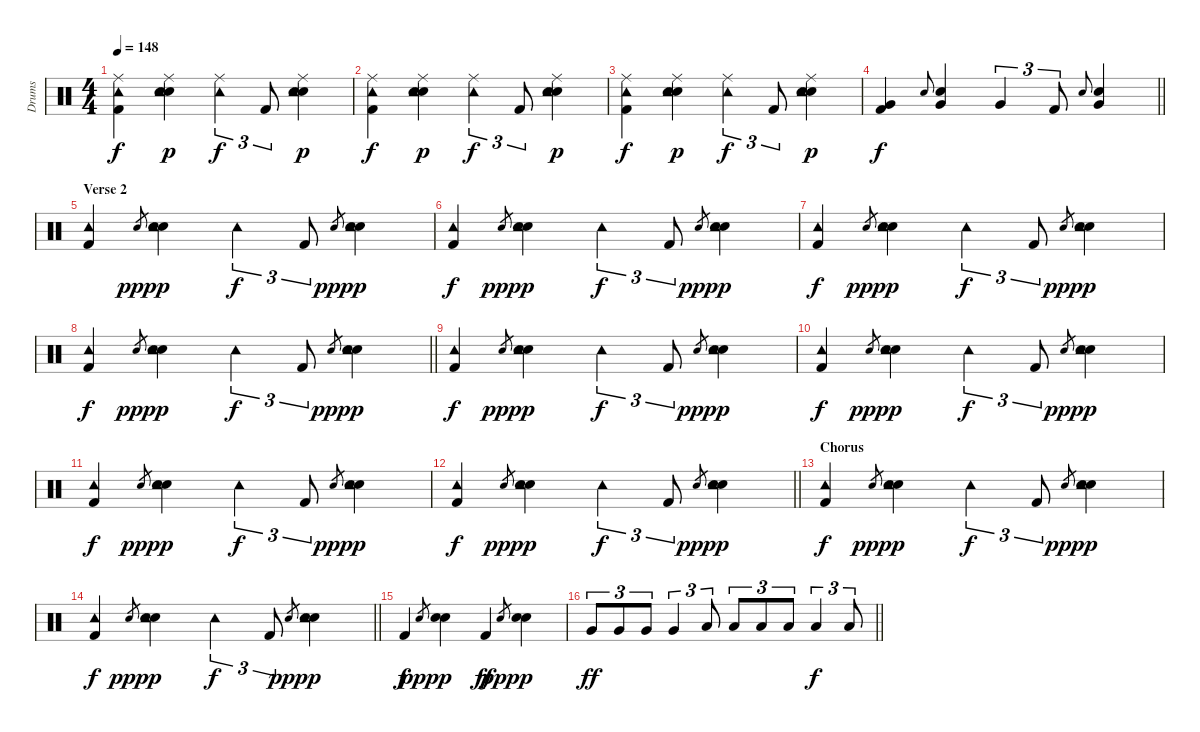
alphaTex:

\track ("Drums" "Drums") {instrument percussion}
\staff {score}
\articulation defaults
\ts (4 4)
\tempo 148
\clef neutral
\ks c
("Ride (middle)" "Tambourine (hit)" "Kick (hit) 2").4{dy f} ("Ride (middle)" "Hand Clap (hit)" "Tambourine (hit)" "Electric Snare (hit)").4{dy p} ("Ride (middle)" "Tambourine (hit)").4{tu (3 2) dy f} "Kick (hit) 2".8{tu (3 2)} ("Ride (middle)" "Hand Clap (hit)" "Tambourine (hit)" "Electric Snare (hit)").4{dy p} |
("Ride (middle)" "Tambourine (hit)" "Kick (hit) 2").4{dy f} ("Ride (middle)" "Hand Clap (hit)" "Tambourine (hit)" "Electric Snare (hit)").4{dy p} ("Ride (middle)" "Tambourine (hit)").4{tu (3 2) dy f} "Kick (hit) 2".8{tu (3 2)} ("Ride (middle)" "Hand Clap (hit)" "Tambourine (hit)" "Electric Snare (hit)").4{dy p} |
("Ride (middle)" "Tambourine (hit)" "Kick (hit) 2").4{dy f} ("Ride (middle)" "Hand Clap (hit)" "Tambourine (hit)" "Electric Snare (hit)").4{dy p} ("Ride (middle)" "Tambourine (hit)").4{tu (3 2) dy f} "Kick (hit) 2".8{tu (3 2)} ("Ride (middle)" "Hand Clap (hit)" "Tambourine (hit)" "Electric Snare (hit)").4{dy p} |
\barLineRight lightlight
("Very Low Tom (hit)" "Kick (hit) 2").4{dy f} "Electric Snare (hit)".8{gr onbeat} ("Very Low Tom (hit)" "Electric Snare (hit)").4 "Very Low Tom (hit)".4{tu (3 2)} "Kick (hit) 2".8{tu (3 2)} "Electric Snare (hit)".8{gr onbeat} ("Very Low Tom (hit)" "Electric Snare (hit)").4 |
\section ("" "Verse 2")
("Tambourine (hit)" "Kick (hit) 2").4 "Electric Snare (hit)".8{gr dy ppp} ("Hand Clap (hit)" "Tambourine (hit)" "Electric Snare (hit)").4{dy p} "Tambourine (hit)".4{tu (3 2) dy f} "Kick (hit) 2".8{tu (3 2)} "Electric Snare (hit)".8{gr dy ppp} ("Hand Clap (hit)" "Tambourine (hit)" "Electric Snare (hit)").4{dy p} |
("Tambourine (hit)" "Kick (hit) 2").4{dy f} "Electric Snare (hit)".8{gr dy ppp} ("Hand Clap (hit)" "Tambourine (hit)" "Electric Snare (hit)").4{dy p} "Tambourine (hit)".4{tu (3 2) dy f} "Kick (hit) 2".8{tu (3 2)} "Electric Snare (hit)".8{gr dy ppp} ("Hand Clap (hit)" "Tambourine (hit)" "Electric Snare (hit)").4{dy p} |
("Tambourine (hit)" "Kick (hit) 2").4{dy f} "Electric Snare (hit)".8{gr dy ppp} ("Hand Clap (hit)" "Tambourine (hit)" "Electric Snare (hit)").4{dy p} "Tambourine (hit)".4{tu (3 2) dy f} "Kick (hit) 2".8{tu (3 2)} "Electric Snare (hit)".8{gr dy ppp} ("Hand Clap (hit)" "Tambourine (hit)" "Electric Snare (hit)").4{dy p} |
\barLineRight lightlight
("Tambourine (hit)" "Kick (hit) 2").4{dy f} "Electric Snare (hit)".8{gr dy ppp} ("Hand Clap (hit)" "Tambourine (hit)" "Electric Snare (hit)").4{dy p} "Tambourine (hit)".4{tu (3 2) dy f} "Kick (hit) 2".8{tu (3 2)} "Electric Snare (hit)".8{gr dy ppp} ("Hand Clap (hit)" "Tambourine (hit)" "Electric Snare (hit)").4{dy p} |
("Tambourine (hit)" "Kick (hit) 2").4{dy f} "Electric Snare (hit)".8{gr dy ppp} ("Hand Clap (hit)" "Tambourine (hit)" "Electric Snare (hit)").4{dy p} "Tambourine (hit)".4{tu (3 2) dy f} "Kick (hit) 2".8{tu (3 2)} "Electric Snare (hit)".8{gr dy ppp} ("Hand Clap (hit)" "Tambourine (hit)" "Electric Snare (hit)").4{dy p} |
("Tambourine (hit)" "Kick (hit) 2").4{dy f} "Electric Snare (hit)".8{gr dy ppp} ("Hand Clap (hit)" "Tambourine (hit)" "Electric Snare (hit)").4{dy p} "Tambourine (hit)".4{tu (3 2) dy f} "Kick (hit) 2".8{tu (3 2)} "Electric Snare (hit)".8{gr dy ppp} ("Hand Clap (hit)" "Tambourine (hit)" "Electric Snare (hit)").4{dy p} |
("Tambourine (hit)" "Kick (hit) 2").4{dy f} "Electric Snare (hit)".8{gr dy ppp} ("Hand Clap (hit)" "Tambourine (hit)" "Electric Snare (hit)").4{dy p} "Tambourine (hit)".4{tu (3 2) dy f} "Kick (hit) 2".8{tu (3 2)} "Electric Snare (hit)".8{gr dy ppp} ("Hand Clap (hit)" "Tambourine (hit)" "Electric Snare (hit)").4{dy p} |
\barLineRight lightlight
("Tambourine (hit)" "Kick (hit) 2").4{dy f} "Electric Snare (hit)".8{gr dy ppp} ("Hand Clap (hit)" "Tambourine (hit)" "Electric Snare (hit)").4{dy p} "Tambourine (hit)".4{tu (3 2) dy f} "Kick (hit) 2".8{tu (3 2)} "Electric Snare (hit)".8{gr dy ppp} ("Hand Clap (hit)" "Tambourine (hit)" "Electric Snare (hit)").4{dy p} |
\section ("" "Chorus")
("Tambourine (hit)" "Kick (hit) 2").4{dy f} "Electric Snare (hit)".8{gr dy ppp} ("Hand Clap (hit)" "Tambourine (hit)" "Electric Snare (hit)").4{dy p} "Tambourine (hit)".4{tu (3 2) dy f} "Kick (hit) 2".8{tu (3 2)} "Electric Snare (hit)".8{gr dy ppp} ("Hand Clap (hit)" "Tambourine (hit)" "Electric Snare (hit)").4{dy p} |
\barLineRight lightlight
("Tambourine (hit)" "Kick (hit) 2").4{dy f} "Electric Snare (hit)".8{gr dy ppp} ("Hand Clap (hit)" "Tambourine (hit)" "Electric Snare (hit)").4{dy p} "Tambourine (hit)".4{tu (3 2) dy f} "Kick (hit) 2".8{tu (3 2)} "Electric Snare (hit)".8{gr dy ppp} ("Hand Clap (hit)" "Tambourine (hit)" "Electric Snare (hit)").4{dy p} |
"Kick (hit) 2".4{dy f} "Electric Snare (hit)".8{gr dy ppp} ("Hand Clap (hit)" "Electric Snare (hit)").4{dy p} "Kick (hit) 2".4{dy ff} "Electric Snare (hit)".8{gr dy ppp} ("Hand Clap (hit)" "Electric Snare (hit)").4{dy p} |
\barLineRight lightlight "Very Low Tom (hit)".8{tu (3 2) dy ff} "Very Low Tom (hit)".8{tu (3 2)} "Very Low Tom (hit)".8{tu (3 2)} "Very Low Tom (hit)".4{tu (3 2)} "Low Floor Tom (hit)".8{tu (3 2)} "Low Floor Tom (hit)".8{tu (3 2)} "Low Floor Tom (hit)".8{tu (3 2)} "Low Floor Tom (hit)".8{tu (3 2)} "Low Floor Tom (hit)".4{tu (3 2) dy f} "Low Floor Tom (hit)".8{tu (3 2)}
